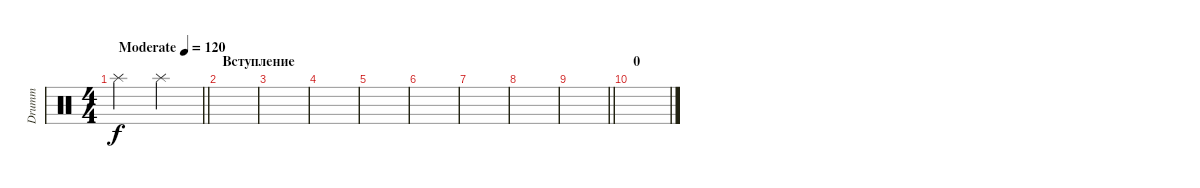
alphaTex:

\track ("Drumm" "Drumm") {instrument percussion}
\staff {score}
\articulation defaults
\ts (4 4)
\tempo (120 "Moderate")
\clef neutral
\barLineRight lightlight
\ks c "Splash (hit)".2{dy f} "Splash (hit)".2
|
\section ("" "Вступление ")
|
|
|
|
|
|
|
\barLineRight lightlight
|
\section ("" "0")
